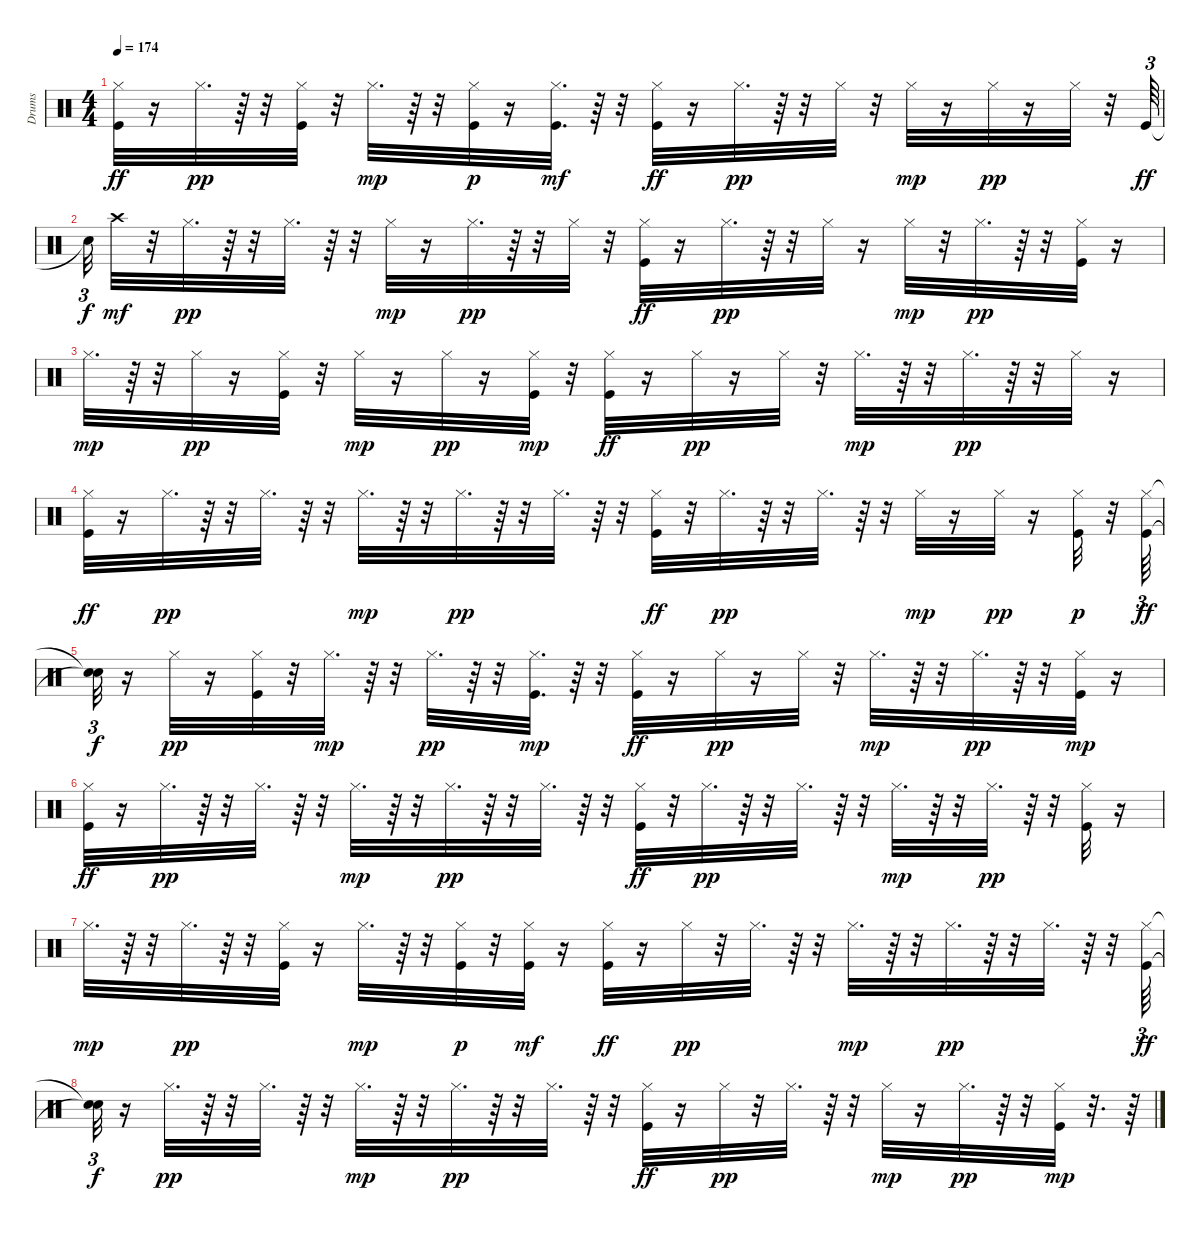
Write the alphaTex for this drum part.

\track ("Drums" "Drums") {instrument percussion}
\staff {score}
\articulation defaults
\ts (4 4)
\tempo 174
\clef neutral
\ks c
("Hi-Hat (closed)" "Kick (hit)").32{dy ff} r.16 "Hi-Hat (closed)".32{d dy pp} r.64 r.32 ("Hi-Hat (closed)" "Kick (hit)").32 r.32 "Hi-Hat (closed)".32{d dy mp} r.64 r.32 ("Hi-Hat (closed)" "Kick (hit)").32{dy p} r.16 ("Hi-Hat (closed)" "Kick (hit)").32{d dy mf} r.64 r.32 ("Hi-Hat (closed)" "Kick (hit)").32{dy ff} r.16 "Hi-Hat (closed)".32{d dy pp} r.64 r.32 "Hi-Hat (closed)".32 r.32 "Hi-Hat (closed)".32{dy mp} r.16 "Hi-Hat (closed)".32{dy pp} r.16 "Hi-Hat (closed)".32 r.32 "Kick (hit)".64{tu (3 2) dy ff} |
"Snare (hit)"{t}.32{tu (3 2) dy f} "Crash high (hit)".32{dy mf} r.32 "Hi-Hat (closed)".32{d dy pp} r.64 r.32 "Hi-Hat (closed)".32{d} r.64 r.32 "Hi-Hat (closed)".32{dy mp} r.16 "Hi-Hat (closed)".32{d dy pp} r.64 r.32 "Hi-Hat (closed)".32 r.32 ("Hi-Hat (closed)" "Kick (hit)").32{dy ff} r.16 "Hi-Hat (closed)".32{d dy pp} r.64 r.32 "Hi-Hat (closed)".32 r.16 "Hi-Hat (closed)".32{dy mp} r.32 "Hi-Hat (closed)".32{d dy pp} r.64 r.32 ("Hi-Hat (closed)" "Kick (hit)").32 r.16 |
"Hi-Hat (closed)".32{d dy mp} r.64 r.32 "Hi-Hat (closed)".32{dy pp} r.16 ("Hi-Hat (closed)" "Kick (hit)").32 r.32 "Hi-Hat (closed)".32{dy mp} r.16 "Hi-Hat (closed)".32{dy pp} r.16 ("Hi-Hat (closed)" "Kick (hit)").32{dy mp} r.32 ("Hi-Hat (closed)" "Kick (hit)").32{dy ff} r.16 "Hi-Hat (closed)".32{dy pp} r.16 "Hi-Hat (closed)".32 r.32 "Hi-Hat (closed)".32{d dy mp} r.64 r.32 "Hi-Hat (closed)".32{d dy pp} r.64 r.32 "Hi-Hat (closed)".32 r.16 |
("Hi-Hat (closed)" "Kick (hit)").32{dy ff} r.16 "Hi-Hat (closed)".32{d dy pp} r.64 r.32 "Hi-Hat (closed)".32{d} r.64 r.32 "Hi-Hat (closed)".32{d dy mp} r.64 r.32 "Hi-Hat (closed)".32{d dy pp} r.64 r.32 "Hi-Hat (closed)".32{d} r.64 r.32 ("Hi-Hat (closed)" "Kick (hit)").32{dy ff} r.32 "Hi-Hat (closed)".32{d dy pp} r.64 r.32 "Hi-Hat (closed)".32{d} r.64 r.32 "Hi-Hat (closed)".32{dy mp} r.16 "Hi-Hat (closed)".32{dy pp} r.16 ("Hi-Hat (closed)" "Kick (hit)").32{dy p} r.32 ("Hi-Hat (closed)" "Kick (hit)").64{tu (3 2) dy ff} |
("Snare (hit)"{t} "Snare (hit)"{t}).32{tu (3 2) dy f} r.16 "Hi-Hat (closed)".32{dy pp} r.16 ("Hi-Hat (closed)" "Kick (hit)").32 r.32 "Hi-Hat (closed)".32{d dy mp} r.64 r.32 "Hi-Hat (closed)".32{d dy pp} r.64 r.32 ("Hi-Hat (closed)" "Kick (hit)").32{d dy mp} r.64 r.32 ("Hi-Hat (closed)" "Kick (hit)").32{dy ff} r.16 "Hi-Hat (closed)".32{dy pp} r.16 "Hi-Hat (closed)".32 r.32 "Hi-Hat (closed)".32{d dy mp} r.64 r.32 "Hi-Hat (closed)".32{d dy pp} r.64 r.32 ("Hi-Hat (closed)" "Kick (hit)").32{dy mp} r.16 |
("Hi-Hat (closed)" "Kick (hit)").32{dy ff} r.16 "Hi-Hat (closed)".32{d dy pp} r.64 r.32 "Hi-Hat (closed)".32{d} r.64 r.32 "Hi-Hat (closed)".32{d dy mp} r.64 r.32 "Hi-Hat (closed)".32{d dy pp} r.64 r.32 "Hi-Hat (closed)".32{d} r.64 r.32 ("Hi-Hat (closed)" "Kick (hit)").32{dy ff} r.32 "Hi-Hat (closed)".32{d dy pp} r.64 r.32 "Hi-Hat (closed)".32{d} r.64 r.32 "Hi-Hat (closed)".32{d dy mp} r.64 r.32 "Hi-Hat (closed)".32{d dy pp} r.64 r.32 ("Hi-Hat (closed)" "Kick (hit)").32 r.16 |
"Hi-Hat (closed)".32{d dy mp} r.64 r.32 "Hi-Hat (closed)".32{d dy pp} r.64 r.32 ("Hi-Hat (closed)" "Kick (hit)").32 r.16 "Hi-Hat (closed)".32{d dy mp} r.64 r.32 ("Hi-Hat (closed)" "Kick (hit)").32{dy p} r.32 ("Hi-Hat (closed)" "Kick (hit)").32{dy mf} r.16 ("Hi-Hat (closed)" "Kick (hit)").32{dy ff} r.16 "Hi-Hat (closed)".32{dy pp} r.32 "Hi-Hat (closed)".32{d} r.64 r.32 "Hi-Hat (closed)".32{d dy mp} r.64 r.32 "Hi-Hat (closed)".32{d dy pp} r.64 r.32 "Hi-Hat (closed)".32{d} r.64 r.32 ("Hi-Hat (closed)" "Kick (hit)").64{tu (3 2) dy ff} |
("Snare (hit)"{t} "Snare (hit)"{t}).32{tu (3 2) dy f} r.16 "Hi-Hat (closed)".32{d dy pp} r.64 r.32 "Hi-Hat (closed)".32{d} r.64 r.32 "Hi-Hat (closed)".32{d dy mp} r.64 r.32 "Hi-Hat (closed)".32{d dy pp} r.64 r.32 "Hi-Hat (closed)".32{d} r.64 r.32 ("Hi-Hat (closed)" "Kick (hit)").32{dy ff} r.16 "Hi-Hat (closed)".32{dy pp} r.32 "Hi-Hat (closed)".32{d} r.64 r.32 "Hi-Hat (closed)".32{dy mp} r.16 "Hi-Hat (closed)".32{d dy pp} r.64 r.32 ("Hi-Hat (closed)" "Kick (hit)").32{dy mp} r.32{d} r.64
